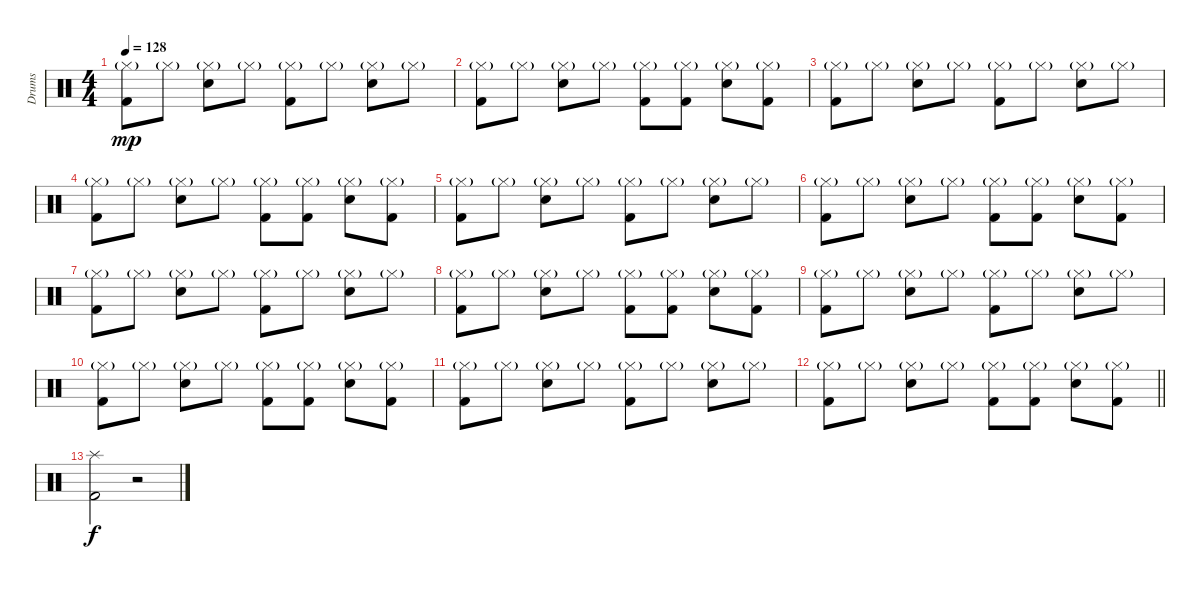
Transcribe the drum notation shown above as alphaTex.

\track ("Drums" "Drums") {instrument percussion}
\staff {score}
\articulation defaults
\ts (4 4)
\tempo 128
\clef neutral
\ks c
("Kick (hit) 2" "Hi-Hat (closed)"{g}).8{dy mp} "Hi-Hat (closed)"{g}.8 ("Snare (hit) 2" "Hi-Hat (closed)"{g}).8 "Hi-Hat (closed)"{g}.8 ("Kick (hit) 2" "Hi-Hat (closed)"{g}).8 "Hi-Hat (closed)"{g}.8 ("Snare (hit) 2" "Hi-Hat (closed)"{g}).8 "Hi-Hat (closed)"{g}.8 |
("Kick (hit) 2" "Hi-Hat (closed)"{g}).8 "Hi-Hat (closed)"{g}.8 ("Snare (hit) 2" "Hi-Hat (closed)"{g}).8 "Hi-Hat (closed)"{g}.8 ("Kick (hit) 2" "Hi-Hat (closed)"{g}).8 ("Kick (hit) 2" "Hi-Hat (closed)"{g}).8 ("Snare (hit) 2" "Hi-Hat (closed)"{g}).8 ("Kick (hit) 2" "Hi-Hat (closed)"{g}).8 |
("Kick (hit) 2" "Hi-Hat (closed)"{g}).8 "Hi-Hat (closed)"{g}.8 ("Snare (hit) 2" "Hi-Hat (closed)"{g}).8 "Hi-Hat (closed)"{g}.8 ("Kick (hit) 2" "Hi-Hat (closed)"{g}).8 "Hi-Hat (closed)"{g}.8 ("Snare (hit) 2" "Hi-Hat (closed)"{g}).8 "Hi-Hat (closed)"{g}.8 |
("Kick (hit) 2" "Hi-Hat (closed)"{g}).8 "Hi-Hat (closed)"{g}.8 ("Snare (hit) 2" "Hi-Hat (closed)"{g}).8 "Hi-Hat (closed)"{g}.8 ("Kick (hit) 2" "Hi-Hat (closed)"{g}).8 ("Kick (hit) 2" "Hi-Hat (closed)"{g}).8 ("Snare (hit) 2" "Hi-Hat (closed)"{g}).8 ("Kick (hit) 2" "Hi-Hat (closed)"{g}).8 |
("Kick (hit) 2" "Hi-Hat (closed)"{g}).8 "Hi-Hat (closed)"{g}.8 ("Snare (hit) 2" "Hi-Hat (closed)"{g}).8 "Hi-Hat (closed)"{g}.8 ("Kick (hit) 2" "Hi-Hat (closed)"{g}).8 "Hi-Hat (closed)"{g}.8 ("Snare (hit) 2" "Hi-Hat (closed)"{g}).8 "Hi-Hat (closed)"{g}.8 |
("Kick (hit) 2" "Hi-Hat (closed)"{g}).8 "Hi-Hat (closed)"{g}.8 ("Snare (hit) 2" "Hi-Hat (closed)"{g}).8 "Hi-Hat (closed)"{g}.8 ("Kick (hit) 2" "Hi-Hat (closed)"{g}).8 ("Kick (hit) 2" "Hi-Hat (closed)"{g}).8 ("Snare (hit) 2" "Hi-Hat (closed)"{g}).8 ("Kick (hit) 2" "Hi-Hat (closed)"{g}).8 |
("Kick (hit) 2" "Hi-Hat (closed)"{g}).8 "Hi-Hat (closed)"{g}.8 ("Snare (hit) 2" "Hi-Hat (closed)"{g}).8 "Hi-Hat (closed)"{g}.8 ("Kick (hit) 2" "Hi-Hat (closed)"{g}).8 "Hi-Hat (closed)"{g}.8 ("Snare (hit) 2" "Hi-Hat (closed)"{g}).8 "Hi-Hat (closed)"{g}.8 |
("Kick (hit) 2" "Hi-Hat (closed)"{g}).8 "Hi-Hat (closed)"{g}.8 ("Snare (hit) 2" "Hi-Hat (closed)"{g}).8 "Hi-Hat (closed)"{g}.8 ("Kick (hit) 2" "Hi-Hat (closed)"{g}).8 ("Kick (hit) 2" "Hi-Hat (closed)"{g}).8 ("Snare (hit) 2" "Hi-Hat (closed)"{g}).8 ("Kick (hit) 2" "Hi-Hat (closed)"{g}).8 |
("Kick (hit) 2" "Hi-Hat (closed)"{g}).8 "Hi-Hat (closed)"{g}.8 ("Snare (hit) 2" "Hi-Hat (closed)"{g}).8 "Hi-Hat (closed)"{g}.8 ("Kick (hit) 2" "Hi-Hat (closed)"{g}).8 "Hi-Hat (closed)"{g}.8 ("Snare (hit) 2" "Hi-Hat (closed)"{g}).8 "Hi-Hat (closed)"{g}.8 |
("Kick (hit) 2" "Hi-Hat (closed)"{g}).8 "Hi-Hat (closed)"{g}.8 ("Snare (hit) 2" "Hi-Hat (closed)"{g}).8 "Hi-Hat (closed)"{g}.8 ("Kick (hit) 2" "Hi-Hat (closed)"{g}).8 ("Kick (hit) 2" "Hi-Hat (closed)"{g}).8 ("Snare (hit) 2" "Hi-Hat (closed)"{g}).8 ("Kick (hit) 2" "Hi-Hat (closed)"{g}).8 |
("Kick (hit) 2" "Hi-Hat (closed)"{g}).8 "Hi-Hat (closed)"{g}.8 ("Snare (hit) 2" "Hi-Hat (closed)"{g}).8 "Hi-Hat (closed)"{g}.8 ("Kick (hit) 2" "Hi-Hat (closed)"{g}).8 "Hi-Hat (closed)"{g}.8 ("Snare (hit) 2" "Hi-Hat (closed)"{g}).8 "Hi-Hat (closed)"{g}.8 |
\barLineRight lightlight
("Kick (hit) 2" "Hi-Hat (closed)"{g}).8 "Hi-Hat (closed)"{g}.8 ("Snare (hit) 2" "Hi-Hat (closed)"{g}).8 "Hi-Hat (closed)"{g}.8 ("Kick (hit) 2" "Hi-Hat (closed)"{g}).8 ("Kick (hit) 2" "Hi-Hat (closed)"{g}).8 ("Snare (hit) 2" "Hi-Hat (closed)"{g}).8 ("Kick (hit) 2" "Hi-Hat (closed)"{g}).8 |
("Kick (hit) 2" "Splash (hit)").2{dy f} r.2
